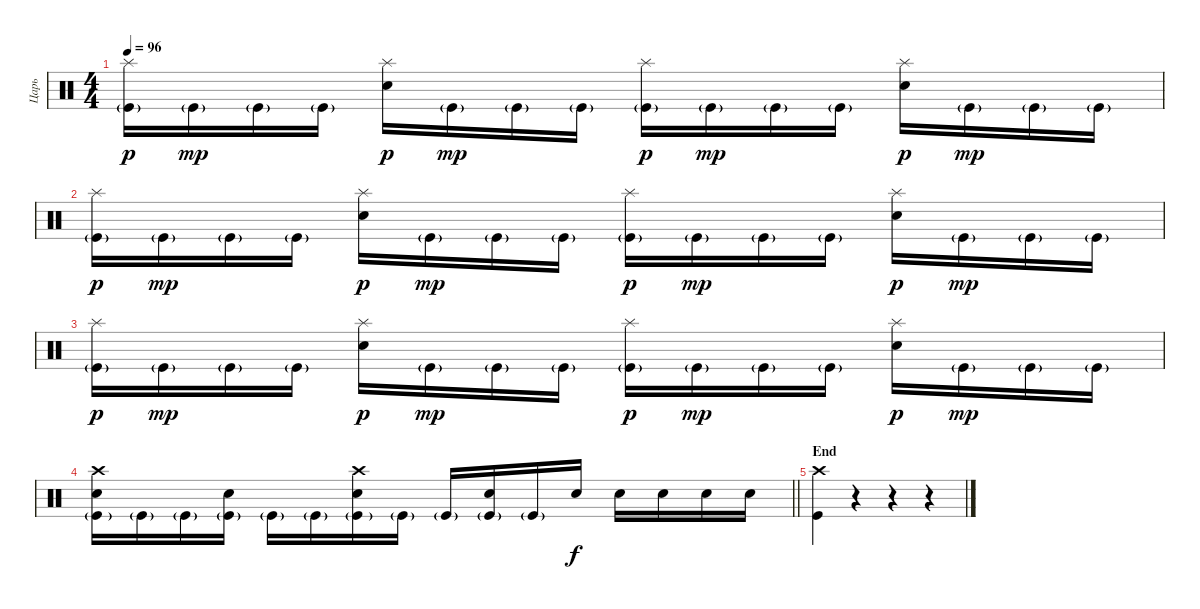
\track ("Царь" "Царь") {instrument percussion}
\staff {score}
\articulation defaults
\ts (4 4)
\tempo 96
\clef neutral
\ks c
("Kick (hit)"{g} "Splash (hit)").16{dy p} "Kick (hit)"{g}.16{dy mp} "Kick (hit)"{g}.16 "Kick (hit)"{g}.16 ("Electric Snare (hit)" "Splash (hit)").16{dy p} "Kick (hit)"{g}.16{dy mp} "Kick (hit)"{g}.16 "Kick (hit)"{g}.16 ("Kick (hit)"{g} "Splash (hit)").16{dy p} "Kick (hit)"{g}.16{dy mp} "Kick (hit)"{g}.16 "Kick (hit)"{g}.16 ("Electric Snare (hit)" "Splash (hit)").16{dy p} "Kick (hit)"{g}.16{dy mp} "Kick (hit)"{g}.16 "Kick (hit)"{g}.16 |
("Kick (hit)"{g} "Splash (hit)").16{dy p} "Kick (hit)"{g}.16{dy mp} "Kick (hit)"{g}.16 "Kick (hit)"{g}.16 ("Electric Snare (hit)" "Splash (hit)").16{dy p} "Kick (hit)"{g}.16{dy mp} "Kick (hit)"{g}.16 "Kick (hit)"{g}.16 ("Kick (hit)"{g} "Splash (hit)").16{dy p} "Kick (hit)"{g}.16{dy mp} "Kick (hit)"{g}.16 "Kick (hit)"{g}.16 ("Electric Snare (hit)" "Splash (hit)").16{dy p} "Kick (hit)"{g}.16{dy mp} "Kick (hit)"{g}.16 "Kick (hit)"{g}.16 |
("Kick (hit)"{g} "Splash (hit)").16{dy p} "Kick (hit)"{g}.16{dy mp} "Kick (hit)"{g}.16 "Kick (hit)"{g}.16 ("Electric Snare (hit)" "Splash (hit)").16{dy p} "Kick (hit)"{g}.16{dy mp} "Kick (hit)"{g}.16 "Kick (hit)"{g}.16 ("Kick (hit)"{g} "Splash (hit)").16{dy p} "Kick (hit)"{g}.16{dy mp} "Kick (hit)"{g}.16 "Kick (hit)"{g}.16 ("Electric Snare (hit)" "Splash (hit)").16{dy p} "Kick (hit)"{g}.16{dy mp} "Kick (hit)"{g}.16 "Kick (hit)"{g}.16 |
\barLineRight lightlight
("Electric Snare (hit)" "Kick (hit)"{g} "Crash high (hit)").16 "Kick (hit)"{g}.16 "Kick (hit)"{g}.16 ("Electric Snare (hit)" "Kick (hit)"{g}).16 "Kick (hit)"{g}.16 "Kick (hit)"{g}.16 ("Electric Snare (hit)" "Kick (hit)"{g} "Crash high (hit)").16 "Kick (hit)"{g}.16 "Kick (hit)"{g}.16 ("Electric Snare (hit)" "Kick (hit)"{g}).16 "Kick (hit)"{g}.16 "Electric Snare (hit)".16{dy f} "Electric Snare (hit)".16 "Electric Snare (hit)".16 "Electric Snare (hit)".16 "Electric Snare (hit)".16 |
\section ("" "End")
("Kick (hit)" "Crash high (hit)").4 r.4 r.4 r.4
